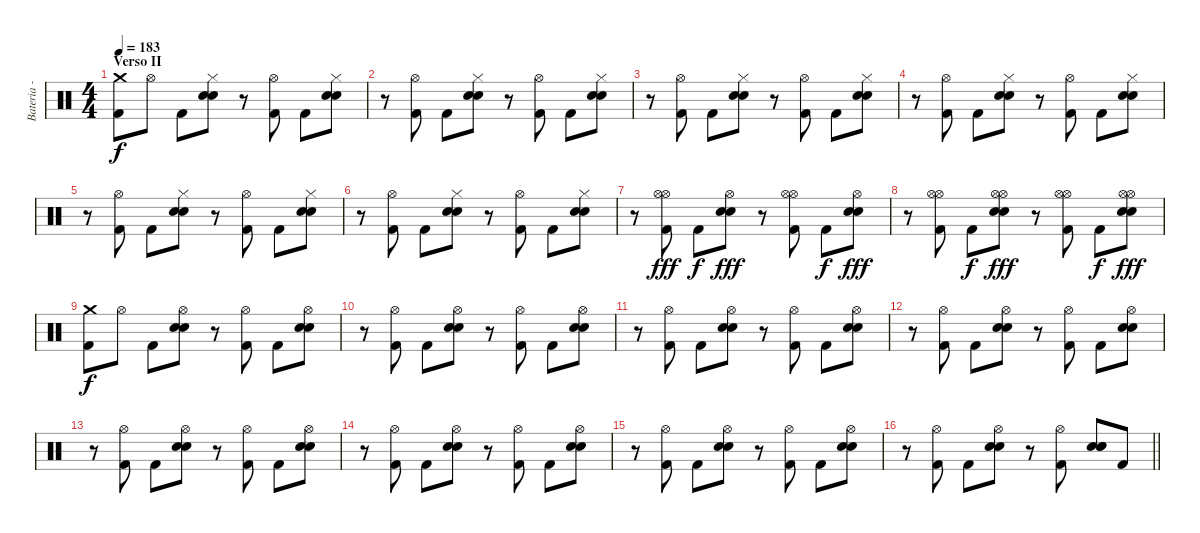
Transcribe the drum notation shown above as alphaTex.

\track ("Bateria - Larzon " "Bateria - ") {instrument percussion}
\staff {score}
\articulation defaults
\ts (4 4)
\section ("" "Verso II")
\tempo 183
\clef neutral
\ks c
("Kick (hit) 2" "Crash medium (hit)").8{dy f} "Hi-Hat (open)".8 "Kick (hit) 2".8 ("Snare (hit) 2" "Snare (hit) 2" "Hi-Hat (closed)").8 r.8 ("Kick (hit) 2" "Hi-Hat (open)").8 "Kick (hit) 2".8 ("Snare (hit) 2" "Snare (hit) 2" "Hi-Hat (closed)").8 |
r.8 ("Kick (hit) 2" "Hi-Hat (open)").8 "Kick (hit) 2".8 ("Snare (hit) 2" "Snare (hit) 2" "Hi-Hat (closed)").8 r.8 ("Kick (hit) 2" "Hi-Hat (open)").8 "Kick (hit) 2".8 ("Snare (hit) 2" "Snare (hit) 2" "Hi-Hat (closed)").8 |
r.8 ("Kick (hit) 2" "Hi-Hat (open)").8 "Kick (hit) 2".8 ("Snare (hit) 2" "Snare (hit) 2" "Hi-Hat (closed)").8 r.8 ("Kick (hit) 2" "Hi-Hat (open)").8 "Kick (hit) 2".8 ("Snare (hit) 2" "Snare (hit) 2" "Hi-Hat (closed)").8 |
r.8 ("Kick (hit) 2" "Hi-Hat (open)").8 "Kick (hit) 2".8 ("Snare (hit) 2" "Snare (hit) 2" "Hi-Hat (closed)").8 r.8 ("Kick (hit) 2" "Hi-Hat (open)").8 "Kick (hit) 2".8 ("Snare (hit) 2" "Snare (hit) 2" "Hi-Hat (closed)").8 |
r.8 ("Kick (hit) 2" "Hi-Hat (open)").8 "Kick (hit) 2".8 ("Snare (hit) 2" "Snare (hit) 2" "Hi-Hat (closed)").8 r.8 ("Kick (hit) 2" "Hi-Hat (open)").8 "Kick (hit) 2".8 ("Snare (hit) 2" "Snare (hit) 2" "Hi-Hat (closed)").8 |
r.8 ("Kick (hit) 2" "Hi-Hat (open)").8 "Kick (hit) 2".8 ("Snare (hit) 2" "Snare (hit) 2" "Hi-Hat (closed)").8 r.8 ("Kick (hit) 2" "Hi-Hat (open)").8 "Kick (hit) 2".8 ("Snare (hit) 2" "Snare (hit) 2" "Hi-Hat (closed)").8 |
r.8 ("Kick (hit) 2" "Hi-Hat (open)" "Hi-Hat (open)").8{dy fff} "Kick (hit) 2".8{dy f} ("Snare (hit) 2" "Snare (hit) 2" "Hi-Hat (open)").8{dy fff} r.8 ("Kick (hit) 2" "Hi-Hat (open)" "Hi-Hat (open)").8 "Kick (hit) 2".8{dy f} ("Snare (hit) 2" "Snare (hit) 2" "Hi-Hat (open)").8{dy fff} |
r.8 ("Kick (hit) 2" "Hi-Hat (open)" "Hi-Hat (open)").8 "Kick (hit) 2".8{dy f} ("Snare (hit) 2" "Snare (hit) 2" "Hi-Hat (open)" "Hi-Hat (open)").8{dy fff} r.8 ("Kick (hit) 2" "Hi-Hat (open)" "Hi-Hat (open)").8 "Kick (hit) 2".8{dy f} ("Snare (hit) 2" "Snare (hit) 2" "Hi-Hat (open)" "Hi-Hat (open)").8{dy fff} |
("Kick (hit) 2" "Crash medium (hit)").8{dy f} "Hi-Hat (open)".8 "Kick (hit) 2".8 ("Snare (hit) 2" "Snare (hit) 2" "Hi-Hat (open)").8 r.8 ("Kick (hit) 2" "Hi-Hat (open)").8 "Kick (hit) 2".8 ("Snare (hit) 2" "Snare (hit) 2" "Hi-Hat (open)").8 |
r.8 ("Kick (hit) 2" "Hi-Hat (open)").8 "Kick (hit) 2".8 ("Snare (hit) 2" "Snare (hit) 2" "Hi-Hat (open)").8 r.8 ("Kick (hit) 2" "Hi-Hat (open)").8 "Kick (hit) 2".8 ("Snare (hit) 2" "Snare (hit) 2" "Hi-Hat (open)").8 |
r.8 ("Kick (hit) 2" "Hi-Hat (open)").8 "Kick (hit) 2".8 ("Snare (hit) 2" "Snare (hit) 2" "Hi-Hat (open)").8 r.8 ("Kick (hit) 2" "Hi-Hat (open)").8 "Kick (hit) 2".8 ("Snare (hit) 2" "Snare (hit) 2" "Hi-Hat (open)").8 |
r.8 ("Kick (hit) 2" "Hi-Hat (open)").8 "Kick (hit) 2".8 ("Snare (hit) 2" "Snare (hit) 2" "Hi-Hat (open)").8 r.8 ("Kick (hit) 2" "Hi-Hat (open)").8 "Kick (hit) 2".8 ("Snare (hit) 2" "Snare (hit) 2" "Hi-Hat (open)").8 |
r.8 ("Kick (hit) 2" "Hi-Hat (open)").8 "Kick (hit) 2".8 ("Snare (hit) 2" "Snare (hit) 2" "Hi-Hat (open)").8 r.8 ("Kick (hit) 2" "Hi-Hat (open)").8 "Kick (hit) 2".8 ("Snare (hit) 2" "Snare (hit) 2" "Hi-Hat (open)").8 |
r.8 ("Kick (hit) 2" "Hi-Hat (open)").8 "Kick (hit) 2".8 ("Snare (hit) 2" "Snare (hit) 2" "Hi-Hat (open)").8 r.8 ("Kick (hit) 2" "Hi-Hat (open)").8 "Kick (hit) 2".8 ("Snare (hit) 2" "Snare (hit) 2" "Hi-Hat (open)").8 |
r.8 ("Kick (hit) 2" "Hi-Hat (open)").8 "Kick (hit) 2".8 ("Snare (hit) 2" "Snare (hit) 2" "Hi-Hat (open)").8 r.8 ("Kick (hit) 2" "Hi-Hat (open)").8 "Kick (hit) 2".8 ("Snare (hit) 2" "Snare (hit) 2" "Hi-Hat (open)").8 |
\barLineRight lightlight
r.8 ("Kick (hit) 2" "Hi-Hat (open)").8 "Kick (hit) 2".8 ("Snare (hit) 2" "Snare (hit) 2" "Hi-Hat (open)").8 r.8 ("Kick (hit) 2" "Hi-Hat (open)").8 ("Snare (hit) 2" "Snare (hit) 2" "Snare (hit) 2").8 "Kick (hit) 2".8
